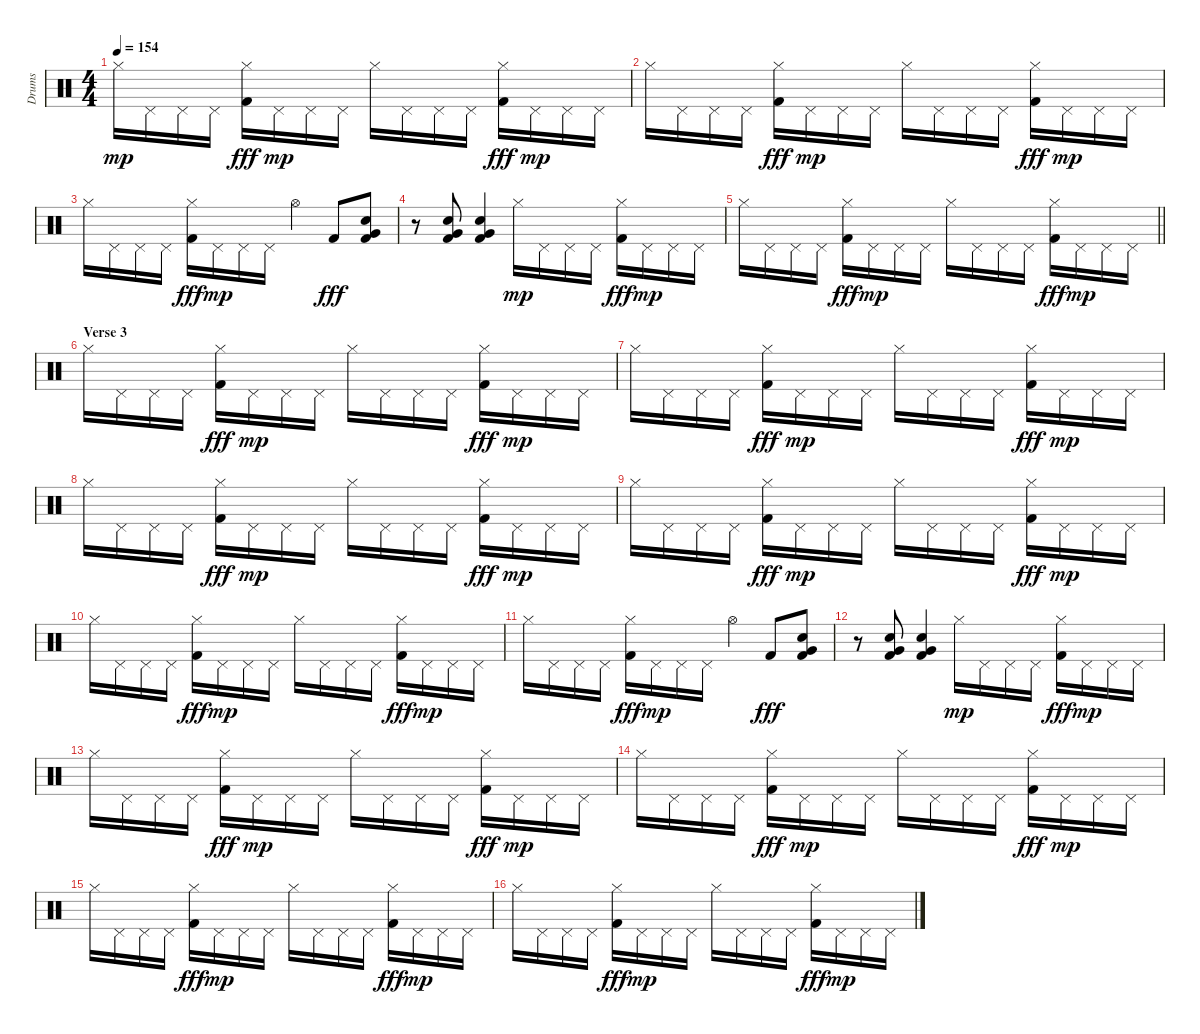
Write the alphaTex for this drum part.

\track ("Drums" "Drums") {instrument percussion}
\staff {score}
\articulation defaults
\ts (4 4)
\tempo 154
\clef neutral
\ks c "Hi-Hat (closed)".16{dy mp} "Pedal Hi-Hat (hit)".16 "Pedal Hi-Hat (hit)".16 "Pedal Hi-Hat (hit)".16
("Hi-Hat (closed)" "Kick (hit) 2").16{dy fff} "Pedal Hi-Hat (hit)".16{dy mp} "Pedal Hi-Hat (hit)".16 "Pedal Hi-Hat (hit)".16 "Hi-Hat (closed)".16 "Pedal Hi-Hat (hit)".16 "Pedal Hi-Hat (hit)".16 "Pedal Hi-Hat (hit)".16 ("Hi-Hat (closed)" "Kick (hit) 2").16{dy fff} "Pedal Hi-Hat (hit)".16{dy mp} "Pedal Hi-Hat (hit)".16 "Pedal Hi-Hat (hit)".16 |
"Hi-Hat (closed)".16 "Pedal Hi-Hat (hit)".16 "Pedal Hi-Hat (hit)".16 "Pedal Hi-Hat (hit)".16 ("Hi-Hat (closed)" "Kick (hit) 2").16{dy fff} "Pedal Hi-Hat (hit)".16{dy mp} "Pedal Hi-Hat (hit)".16 "Pedal Hi-Hat (hit)".16 "Hi-Hat (closed)".16 "Pedal Hi-Hat (hit)".16 "Pedal Hi-Hat (hit)".16 "Pedal Hi-Hat (hit)".16 ("Hi-Hat (closed)" "Kick (hit) 2").16{dy fff} "Pedal Hi-Hat (hit)".16{dy mp} "Pedal Hi-Hat (hit)".16 "Pedal Hi-Hat (hit)".16 |
"Hi-Hat (closed)".16 "Pedal Hi-Hat (hit)".16 "Pedal Hi-Hat (hit)".16 "Pedal Hi-Hat (hit)".16 ("Hi-Hat (closed)" "Kick (hit) 2").16{dy fff} "Pedal Hi-Hat (hit)".16{dy mp} "Pedal Hi-Hat (hit)".16 "Pedal Hi-Hat (hit)".16 "Hi-Hat (open)".4 "Kick (hit) 2".8{dy fff} ("Electric Snare (hit)" "Very Low Tom (hit)" "Kick (hit) 2").8 |
r.8 ("Electric Snare (hit)" "Very Low Tom (hit)" "Kick (hit) 2").8 ("Electric Snare (hit)" "Very Low Tom (hit)" "Kick (hit) 2").4 "Hi-Hat (closed)".16{dy mp} "Pedal Hi-Hat (hit)".16 "Pedal Hi-Hat (hit)".16 "Pedal Hi-Hat (hit)".16 ("Hi-Hat (closed)" "Kick (hit) 2").16{dy fff} "Pedal Hi-Hat (hit)".16{dy mp} "Pedal Hi-Hat (hit)".16 "Pedal Hi-Hat (hit)".16 |
\barLineRight lightlight "Hi-Hat (closed)".16 "Pedal Hi-Hat (hit)".16 "Pedal Hi-Hat (hit)".16 "Pedal Hi-Hat (hit)".16
("Hi-Hat (closed)" "Kick (hit) 2").16{dy fff} "Pedal Hi-Hat (hit)".16{dy mp} "Pedal Hi-Hat (hit)".16 "Pedal Hi-Hat (hit)".16 "Hi-Hat (closed)".16 "Pedal Hi-Hat (hit)".16 "Pedal Hi-Hat (hit)".16 "Pedal Hi-Hat (hit)".16 ("Hi-Hat (closed)" "Kick (hit) 2").16{dy fff} "Pedal Hi-Hat (hit)".16{dy mp} "Pedal Hi-Hat (hit)".16 "Pedal Hi-Hat (hit)".16 |
\section ("" "Verse 3")
"Hi-Hat (closed)".16 "Pedal Hi-Hat (hit)".16 "Pedal Hi-Hat (hit)".16 "Pedal Hi-Hat (hit)".16 ("Hi-Hat (closed)" "Kick (hit) 2").16{dy fff} "Pedal Hi-Hat (hit)".16{dy mp} "Pedal Hi-Hat (hit)".16 "Pedal Hi-Hat (hit)".16 "Hi-Hat (closed)".16 "Pedal Hi-Hat (hit)".16 "Pedal Hi-Hat (hit)".16 "Pedal Hi-Hat (hit)".16 ("Hi-Hat (closed)" "Kick (hit) 2").16{dy fff} "Pedal Hi-Hat (hit)".16{dy mp} "Pedal Hi-Hat (hit)".16 "Pedal Hi-Hat (hit)".16 |
"Hi-Hat (closed)".16 "Pedal Hi-Hat (hit)".16 "Pedal Hi-Hat (hit)".16 "Pedal Hi-Hat (hit)".16 ("Hi-Hat (closed)" "Kick (hit) 2").16{dy fff} "Pedal Hi-Hat (hit)".16{dy mp} "Pedal Hi-Hat (hit)".16 "Pedal Hi-Hat (hit)".16 "Hi-Hat (closed)".16 "Pedal Hi-Hat (hit)".16 "Pedal Hi-Hat (hit)".16 "Pedal Hi-Hat (hit)".16 ("Hi-Hat (closed)" "Kick (hit) 2").16{dy fff} "Pedal Hi-Hat (hit)".16{dy mp} "Pedal Hi-Hat (hit)".16 "Pedal Hi-Hat (hit)".16 |
"Hi-Hat (closed)".16 "Pedal Hi-Hat (hit)".16 "Pedal Hi-Hat (hit)".16 "Pedal Hi-Hat (hit)".16 ("Hi-Hat (closed)" "Kick (hit) 2").16{dy fff} "Pedal Hi-Hat (hit)".16{dy mp} "Pedal Hi-Hat (hit)".16 "Pedal Hi-Hat (hit)".16 "Hi-Hat (closed)".16 "Pedal Hi-Hat (hit)".16 "Pedal Hi-Hat (hit)".16 "Pedal Hi-Hat (hit)".16 ("Hi-Hat (closed)" "Kick (hit) 2").16{dy fff} "Pedal Hi-Hat (hit)".16{dy mp} "Pedal Hi-Hat (hit)".16 "Pedal Hi-Hat (hit)".16 |
"Hi-Hat (closed)".16 "Pedal Hi-Hat (hit)".16 "Pedal Hi-Hat (hit)".16 "Pedal Hi-Hat (hit)".16 ("Hi-Hat (closed)" "Kick (hit) 2").16{dy fff} "Pedal Hi-Hat (hit)".16{dy mp} "Pedal Hi-Hat (hit)".16 "Pedal Hi-Hat (hit)".16 "Hi-Hat (closed)".16 "Pedal Hi-Hat (hit)".16 "Pedal Hi-Hat (hit)".16 "Pedal Hi-Hat (hit)".16 ("Hi-Hat (closed)" "Kick (hit) 2").16{dy fff} "Pedal Hi-Hat (hit)".16{dy mp} "Pedal Hi-Hat (hit)".16 "Pedal Hi-Hat (hit)".16 |
"Hi-Hat (closed)".16 "Pedal Hi-Hat (hit)".16 "Pedal Hi-Hat (hit)".16 "Pedal Hi-Hat (hit)".16 ("Hi-Hat (closed)" "Kick (hit) 2").16{dy fff} "Pedal Hi-Hat (hit)".16{dy mp} "Pedal Hi-Hat (hit)".16 "Pedal Hi-Hat (hit)".16 "Hi-Hat (closed)".16 "Pedal Hi-Hat (hit)".16 "Pedal Hi-Hat (hit)".16 "Pedal Hi-Hat (hit)".16 ("Hi-Hat (closed)" "Kick (hit) 2").16{dy fff} "Pedal Hi-Hat (hit)".16{dy mp} "Pedal Hi-Hat (hit)".16 "Pedal Hi-Hat (hit)".16 |
"Hi-Hat (closed)".16 "Pedal Hi-Hat (hit)".16 "Pedal Hi-Hat (hit)".16 "Pedal Hi-Hat (hit)".16 ("Hi-Hat (closed)" "Kick (hit) 2").16{dy fff} "Pedal Hi-Hat (hit)".16{dy mp} "Pedal Hi-Hat (hit)".16 "Pedal Hi-Hat (hit)".16 "Hi-Hat (open)".4 "Kick (hit) 2".8{dy fff} ("Electric Snare (hit)" "Very Low Tom (hit)" "Kick (hit) 2").8 |
r.8 ("Electric Snare (hit)" "Very Low Tom (hit)" "Kick (hit) 2").8 ("Electric Snare (hit)" "Very Low Tom (hit)" "Kick (hit) 2").4 "Hi-Hat (closed)".16{dy mp} "Pedal Hi-Hat (hit)".16 "Pedal Hi-Hat (hit)".16 "Pedal Hi-Hat (hit)".16 ("Hi-Hat (closed)" "Kick (hit) 2").16{dy fff} "Pedal Hi-Hat (hit)".16{dy mp} "Pedal Hi-Hat (hit)".16 "Pedal Hi-Hat (hit)".16 |
"Hi-Hat (closed)".16 "Pedal Hi-Hat (hit)".16 "Pedal Hi-Hat (hit)".16 "Pedal Hi-Hat (hit)".16 ("Hi-Hat (closed)" "Kick (hit) 2").16{dy fff} "Pedal Hi-Hat (hit)".16{dy mp} "Pedal Hi-Hat (hit)".16 "Pedal Hi-Hat (hit)".16 "Hi-Hat (closed)".16 "Pedal Hi-Hat (hit)".16 "Pedal Hi-Hat (hit)".16 "Pedal Hi-Hat (hit)".16 ("Hi-Hat (closed)" "Kick (hit) 2").16{dy fff} "Pedal Hi-Hat (hit)".16{dy mp} "Pedal Hi-Hat (hit)".16 "Pedal Hi-Hat (hit)".16 |
"Hi-Hat (closed)".16 "Pedal Hi-Hat (hit)".16 "Pedal Hi-Hat (hit)".16 "Pedal Hi-Hat (hit)".16 ("Hi-Hat (closed)" "Kick (hit) 2").16{dy fff} "Pedal Hi-Hat (hit)".16{dy mp} "Pedal Hi-Hat (hit)".16 "Pedal Hi-Hat (hit)".16 "Hi-Hat (closed)".16 "Pedal Hi-Hat (hit)".16 "Pedal Hi-Hat (hit)".16 "Pedal Hi-Hat (hit)".16 ("Hi-Hat (closed)" "Kick (hit) 2").16{dy fff} "Pedal Hi-Hat (hit)".16{dy mp} "Pedal Hi-Hat (hit)".16 "Pedal Hi-Hat (hit)".16 |
"Hi-Hat (closed)".16 "Pedal Hi-Hat (hit)".16 "Pedal Hi-Hat (hit)".16 "Pedal Hi-Hat (hit)".16 ("Hi-Hat (closed)" "Kick (hit) 2").16{dy fff} "Pedal Hi-Hat (hit)".16{dy mp} "Pedal Hi-Hat (hit)".16 "Pedal Hi-Hat (hit)".16 "Hi-Hat (closed)".16 "Pedal Hi-Hat (hit)".16 "Pedal Hi-Hat (hit)".16 "Pedal Hi-Hat (hit)".16 ("Hi-Hat (closed)" "Kick (hit) 2").16{dy fff} "Pedal Hi-Hat (hit)".16{dy mp} "Pedal Hi-Hat (hit)".16 "Pedal Hi-Hat (hit)".16 |
"Hi-Hat (closed)".16 "Pedal Hi-Hat (hit)".16 "Pedal Hi-Hat (hit)".16 "Pedal Hi-Hat (hit)".16 ("Hi-Hat (closed)" "Kick (hit) 2").16{dy fff} "Pedal Hi-Hat (hit)".16{dy mp} "Pedal Hi-Hat (hit)".16 "Pedal Hi-Hat (hit)".16 "Hi-Hat (closed)".16 "Pedal Hi-Hat (hit)".16 "Pedal Hi-Hat (hit)".16 "Pedal Hi-Hat (hit)".16 ("Hi-Hat (closed)" "Kick (hit) 2").16{dy fff} "Pedal Hi-Hat (hit)".16{dy mp} "Pedal Hi-Hat (hit)".16 "Pedal Hi-Hat (hit)".16
